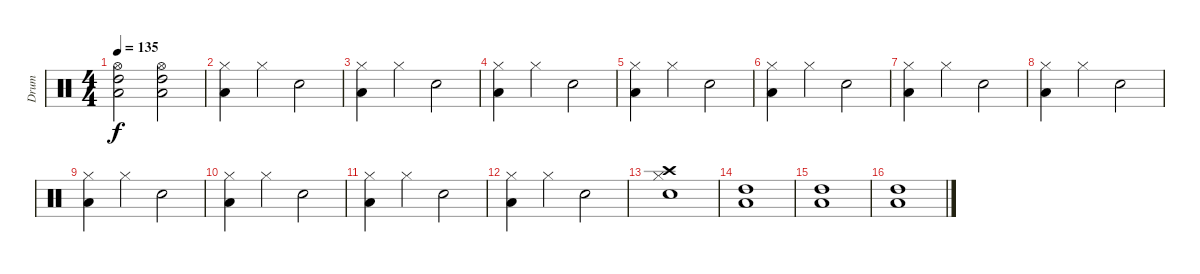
\track ("Drum" "Drum") {instrument percussion}
\staff {score}
\articulation defaults
\ts (4 4)
\tempo 135
\clef neutral
\ks c
("Hi-Hat (open)" "High Tom (hit)" "Low Tom (hit)").2{dy f} ("Hi-Hat (open)" "High Tom (hit)" "Low Tom (hit)").2 |
("Hi-Hat (closed)" "Low Tom (hit)").4 "Hi-Hat (closed)".4 "Snare (hit) 2".2 |
("Hi-Hat (closed)" "Low Tom (hit)").4 "Hi-Hat (closed)".4 "Snare (hit) 2".2 |
("Hi-Hat (closed)" "Low Tom (hit)").4 "Hi-Hat (closed)".4 "Snare (hit) 2".2 |
("Hi-Hat (closed)" "Low Tom (hit)").4 "Hi-Hat (closed)".4 "Snare (hit) 2".2 |
("Hi-Hat (closed)" "Low Tom (hit)").4 "Hi-Hat (closed)".4 "Snare (hit) 2".2 |
("Hi-Hat (closed)" "Low Tom (hit)").4 "Hi-Hat (closed)".4 "Snare (hit) 2".2 |
("Hi-Hat (closed)" "Low Tom (hit)").4 "Hi-Hat (closed)".4 "Snare (hit) 2".2 |
("Hi-Hat (closed)" "Low Tom (hit)").4 "Hi-Hat (closed)".4 "Snare (hit) 2".2 |
("Hi-Hat (closed)" "Low Tom (hit)").4 "Hi-Hat (closed)".4 "Snare (hit) 2".2 |
("Hi-Hat (closed)" "Low Tom (hit)").4 "Hi-Hat (closed)".4 "Snare (hit) 2".2 |
("Hi-Hat (closed)" "Low Tom (hit)").4 "Hi-Hat (closed)".4 "Snare (hit) 2".2 |
("Crash high (hit)" "Snare (hit) 2" "Hi-Hat (closed)").1 |
("High Tom (hit)" "Low Tom (hit)").1 |
("High Tom (hit)" "Low Tom (hit)").1 |
("High Tom (hit)" "Low Tom (hit)").1
